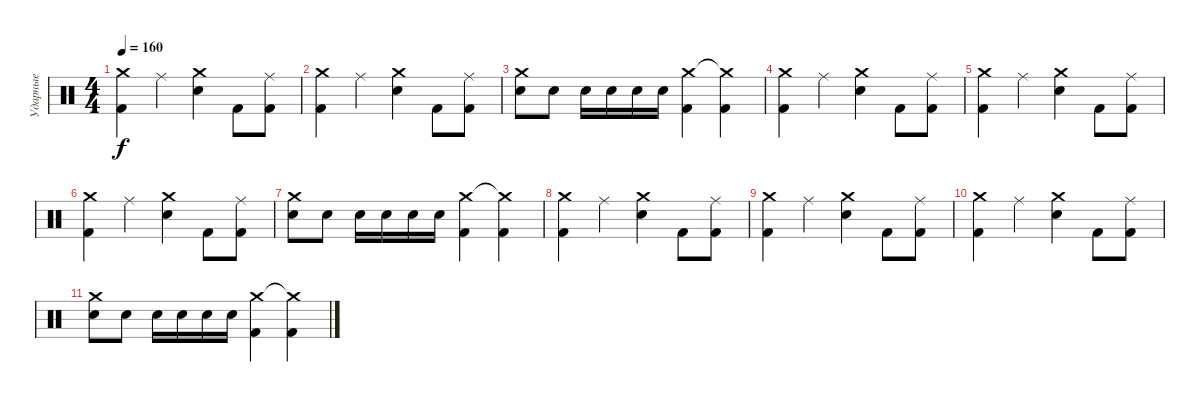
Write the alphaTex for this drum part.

\track ("Ударные" "Ударные") {instrument percussion}
\staff {score}
\articulation defaults
\ts (4 4)
\tempo 160
\clef neutral
\ks c
("Crash medium (hit)" "Kick (hit) 2").4{dy f} "Ride (middle)".4 ("Crash medium (hit)" "Electric Snare (hit)").4 "Kick (hit) 2".8 ("Ride (middle)" "Kick (hit) 2").8 |
("Crash medium (hit)" "Kick (hit) 2").4 "Ride (middle)".4 ("Crash medium (hit)" "Electric Snare (hit)").4 "Kick (hit) 2".8 ("Ride (middle)" "Kick (hit) 2").8 |
("Crash medium (hit)" "Electric Snare (hit)").8 "Electric Snare (hit)".8 "Electric Snare (hit)".16 "Electric Snare (hit)".16 "Electric Snare (hit)".16 "Electric Snare (hit)".16 ("Crash medium (hit)" "Kick (hit) 2").4 ("Crash medium (hit)"{t} "Kick (hit) 2").4 |
("Crash medium (hit)" "Kick (hit) 2").4 "Ride (middle)".4 ("Crash medium (hit)" "Electric Snare (hit)").4 "Kick (hit) 2".8 ("Ride (middle)" "Kick (hit) 2").8 |
("Crash medium (hit)" "Kick (hit) 2").4 "Ride (middle)".4 ("Crash medium (hit)" "Electric Snare (hit)").4 "Kick (hit) 2".8 ("Ride (middle)" "Kick (hit) 2").8 |
("Crash medium (hit)" "Kick (hit) 2").4 "Ride (middle)".4 ("Crash medium (hit)" "Electric Snare (hit)").4 "Kick (hit) 2".8 ("Ride (middle)" "Kick (hit) 2").8 |
("Crash medium (hit)" "Electric Snare (hit)").8 "Electric Snare (hit)".8 "Electric Snare (hit)".16 "Electric Snare (hit)".16 "Electric Snare (hit)".16 "Electric Snare (hit)".16 ("Crash medium (hit)" "Kick (hit) 2").4 ("Crash medium (hit)"{t} "Kick (hit) 2").4 |
("Crash medium (hit)" "Kick (hit) 2").4 "Ride (middle)".4 ("Crash medium (hit)" "Electric Snare (hit)").4 "Kick (hit) 2".8 ("Ride (middle)" "Kick (hit) 2").8 |
("Crash medium (hit)" "Kick (hit) 2").4 "Ride (middle)".4 ("Crash medium (hit)" "Electric Snare (hit)").4 "Kick (hit) 2".8 ("Ride (middle)" "Kick (hit) 2").8 |
("Crash medium (hit)" "Kick (hit) 2").4 "Ride (middle)".4 ("Crash medium (hit)" "Electric Snare (hit)").4 "Kick (hit) 2".8 ("Ride (middle)" "Kick (hit) 2").8 |
("Crash medium (hit)" "Electric Snare (hit)").8 "Electric Snare (hit)".8 "Electric Snare (hit)".16 "Electric Snare (hit)".16 "Electric Snare (hit)".16 "Electric Snare (hit)".16 ("Crash medium (hit)" "Kick (hit) 2").4 ("Crash medium (hit)"{t} "Kick (hit) 2").4
